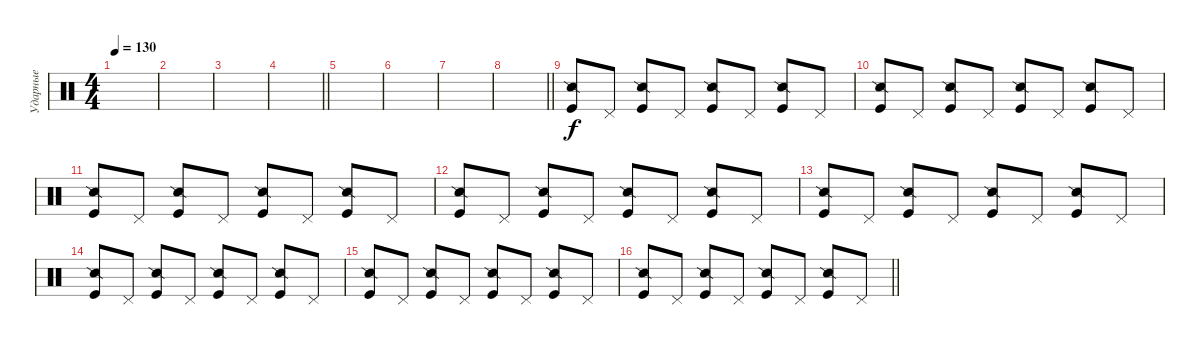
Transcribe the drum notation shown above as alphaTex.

\track ("Ударные" "Ударные") {instrument percussion}
\staff {score}
\articulation defaults
\ts (4 4)
\tempo 130
\clef neutral
\ks c
|
|
|
\barLineRight lightlight
|
|
|
|
\barLineRight lightlight
|
("Kick (hit)" "Snare (side stick) 2").8 "Pedal Hi-Hat (hit)".8 ("Kick (hit)" "Snare (side stick) 2").8 "Pedal Hi-Hat (hit)".8 ("Kick (hit)" "Snare (side stick) 2").8 "Pedal Hi-Hat (hit)".8 ("Kick (hit)" "Snare (side stick) 2").8 "Pedal Hi-Hat (hit)".8 |
("Kick (hit)" "Snare (side stick) 2").8 "Pedal Hi-Hat (hit)".8 ("Kick (hit)" "Snare (side stick) 2").8 "Pedal Hi-Hat (hit)".8 ("Kick (hit)" "Snare (side stick) 2").8 "Pedal Hi-Hat (hit)".8 ("Kick (hit)" "Snare (side stick) 2").8 "Pedal Hi-Hat (hit)".8 |
("Kick (hit)" "Snare (side stick) 2").8 "Pedal Hi-Hat (hit)".8 ("Kick (hit)" "Snare (side stick) 2").8 "Pedal Hi-Hat (hit)".8 ("Kick (hit)" "Snare (side stick) 2").8 "Pedal Hi-Hat (hit)".8 ("Kick (hit)" "Snare (side stick) 2").8 "Pedal Hi-Hat (hit)".8 |
("Kick (hit)" "Snare (side stick) 2").8 "Pedal Hi-Hat (hit)".8 ("Kick (hit)" "Snare (side stick) 2").8 "Pedal Hi-Hat (hit)".8 ("Kick (hit)" "Snare (side stick) 2").8 "Pedal Hi-Hat (hit)".8 ("Kick (hit)" "Snare (side stick) 2").8 "Pedal Hi-Hat (hit)".8 |
("Kick (hit)" "Snare (side stick) 2").8 "Pedal Hi-Hat (hit)".8 ("Kick (hit)" "Snare (side stick) 2").8 "Pedal Hi-Hat (hit)".8 ("Kick (hit)" "Snare (side stick) 2").8 "Pedal Hi-Hat (hit)".8 ("Kick (hit)" "Snare (side stick) 2").8 "Pedal Hi-Hat (hit)".8 |
("Kick (hit)" "Snare (side stick) 2").8 "Pedal Hi-Hat (hit)".8 ("Kick (hit)" "Snare (side stick) 2").8 "Pedal Hi-Hat (hit)".8 ("Kick (hit)" "Snare (side stick) 2").8 "Pedal Hi-Hat (hit)".8 ("Kick (hit)" "Snare (side stick) 2").8 "Pedal Hi-Hat (hit)".8 |
("Kick (hit)" "Snare (side stick) 2").8 "Pedal Hi-Hat (hit)".8 ("Kick (hit)" "Snare (side stick) 2").8 "Pedal Hi-Hat (hit)".8 ("Kick (hit)" "Snare (side stick) 2").8 "Pedal Hi-Hat (hit)".8 ("Kick (hit)" "Snare (side stick) 2").8 "Pedal Hi-Hat (hit)".8 |
\barLineRight lightlight
("Kick (hit)" "Snare (side stick) 2").8 "Pedal Hi-Hat (hit)".8 ("Kick (hit)" "Snare (side stick) 2").8 "Pedal Hi-Hat (hit)".8 ("Kick (hit)" "Snare (side stick) 2").8 "Pedal Hi-Hat (hit)".8 ("Kick (hit)" "Snare (side stick) 2").8 "Pedal Hi-Hat (hit)".8
